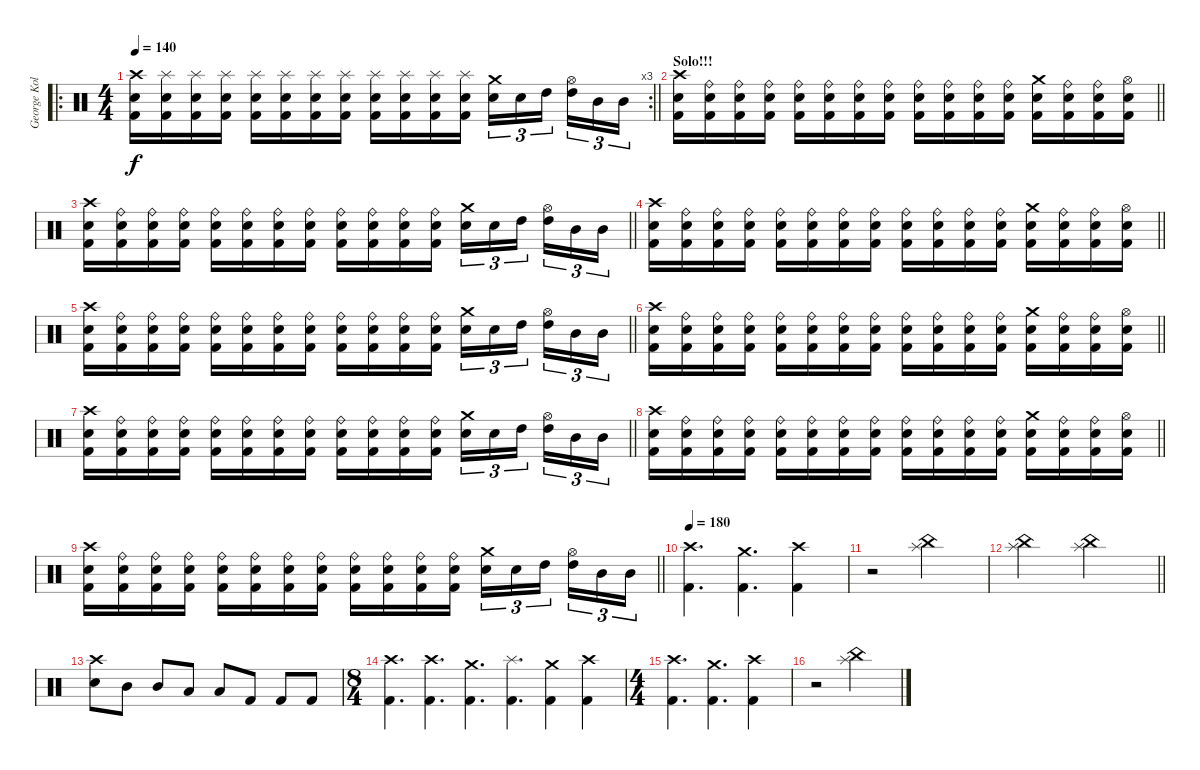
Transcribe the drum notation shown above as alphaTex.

\track ("George Kollias [Equill]" "George Kol") {instrument percussion}
\staff {score}
\articulation defaults
\ro
\rc 3
\ts (4 4)
\tempo 140
\clef neutral
\barLineRight lightlight
\ks c
("Crash high (hit)" "Electric Snare (hit)" "Kick (hit) 2").16{dy f} ("Splash (hit)" "Electric Snare (hit)" "Kick (hit) 2").16 ("Splash (hit)" "Electric Snare (hit)" "Kick (hit) 2").16 ("Splash (hit)" "Electric Snare (hit)" "Kick (hit) 2").16 ("Splash (hit)" "Electric Snare (hit)" "Kick (hit) 2").16 ("Splash (hit)" "Electric Snare (hit)" "Kick (hit) 2").16 ("Splash (hit)" "Electric Snare (hit)" "Kick (hit) 2").16 ("Splash (hit)" "Electric Snare (hit)" "Kick (hit) 2").16 ("Splash (hit)" "Electric Snare (hit)" "Kick (hit) 2").16 ("Splash (hit)" "Electric Snare (hit)" "Kick (hit) 2").16 ("Splash (hit)" "Electric Snare (hit)" "Kick (hit) 2").16 ("Splash (hit)" "Electric Snare (hit)" "Kick (hit) 2").16 ("Crash medium (hit)" "Electric Snare (hit)").16{tu (3 2)} "Electric Snare (hit)".16{tu (3 2)} "High Tom (hit)".16{tu (3 2) beam splitsecondary} ("Hi-Hat (open)" "High Tom (hit)").16{tu (3 2)} "Mid Tom (hit)".16{tu (3 2)} "Mid Tom (hit)".16{tu (3 2)} |
\section ("" "Solo!!!")
\barLineRight lightlight
("Crash high (hit)" "Electric Snare (hit)" "Kick (hit) 2").16 ("Ride (bell)" "Electric Snare (hit)" "Kick (hit) 2").16 ("Ride (bell)" "Electric Snare (hit)" "Kick (hit) 2").16 ("Ride (bell)" "Electric Snare (hit)" "Kick (hit) 2").16 ("Ride (bell)" "Electric Snare (hit)" "Kick (hit) 2").16 ("Ride (bell)" "Electric Snare (hit)" "Kick (hit) 2").16 ("Ride (bell)" "Electric Snare (hit)" "Kick (hit) 2").16 ("Ride (bell)" "Electric Snare (hit)" "Kick (hit) 2").16 ("Ride (bell)" "Electric Snare (hit)" "Kick (hit) 2").16 ("Ride (bell)" "Electric Snare (hit)" "Kick (hit) 2").16 ("Ride (bell)" "Electric Snare (hit)" "Kick (hit) 2").16 ("Ride (bell)" "Electric Snare (hit)" "Kick (hit) 2").16 ("Crash medium (hit)" "Electric Snare (hit)" "Kick (hit) 2").16 ("Ride (bell)" "Electric Snare (hit)" "Kick (hit) 2").16 ("Ride (bell)" "Electric Snare (hit)" "Kick (hit) 2").16 ("Hi-Hat (open)" "Electric Snare (hit)" "Kick (hit) 2").16 |
\barLineRight lightlight
("Crash high (hit)" "Electric Snare (hit)" "Kick (hit) 2").16 ("Ride (bell)" "Electric Snare (hit)" "Kick (hit) 2").16 ("Ride (bell)" "Electric Snare (hit)" "Kick (hit) 2").16 ("Ride (bell)" "Electric Snare (hit)" "Kick (hit) 2").16 ("Ride (bell)" "Electric Snare (hit)" "Kick (hit) 2").16 ("Ride (bell)" "Electric Snare (hit)" "Kick (hit) 2").16 ("Ride (bell)" "Electric Snare (hit)" "Kick (hit) 2").16 ("Ride (bell)" "Electric Snare (hit)" "Kick (hit) 2").16 ("Ride (bell)" "Electric Snare (hit)" "Kick (hit) 2").16 ("Ride (bell)" "Electric Snare (hit)" "Kick (hit) 2").16 ("Ride (bell)" "Electric Snare (hit)" "Kick (hit) 2").16 ("Ride (bell)" "Electric Snare (hit)" "Kick (hit) 2").16 ("Crash medium (hit)" "Electric Snare (hit)").16{tu (3 2)} "Electric Snare (hit)".16{tu (3 2)} "High Tom (hit)".16{tu (3 2) beam splitsecondary} ("Hi-Hat (open)" "High Tom (hit)").16{tu (3 2)} "Mid Tom (hit)".16{tu (3 2)} "Mid Tom (hit)".16{tu (3 2)} |
\barLineRight lightlight
("Crash high (hit)" "Electric Snare (hit)" "Kick (hit) 2").16 ("Ride (bell)" "Electric Snare (hit)" "Kick (hit) 2").16 ("Ride (bell)" "Electric Snare (hit)" "Kick (hit) 2").16 ("Ride (bell)" "Electric Snare (hit)" "Kick (hit) 2").16 ("Ride (bell)" "Electric Snare (hit)" "Kick (hit) 2").16 ("Ride (bell)" "Electric Snare (hit)" "Kick (hit) 2").16 ("Ride (bell)" "Electric Snare (hit)" "Kick (hit) 2").16 ("Ride (bell)" "Electric Snare (hit)" "Kick (hit) 2").16 ("Ride (bell)" "Electric Snare (hit)" "Kick (hit) 2").16 ("Ride (bell)" "Electric Snare (hit)" "Kick (hit) 2").16 ("Ride (bell)" "Electric Snare (hit)" "Kick (hit) 2").16 ("Ride (bell)" "Electric Snare (hit)" "Kick (hit) 2").16 ("Crash medium (hit)" "Electric Snare (hit)" "Kick (hit) 2").16 ("Ride (bell)" "Electric Snare (hit)" "Kick (hit) 2").16 ("Ride (bell)" "Electric Snare (hit)" "Kick (hit) 2").16 ("Hi-Hat (open)" "Electric Snare (hit)" "Kick (hit) 2").16 |
\barLineRight lightlight
("Crash high (hit)" "Electric Snare (hit)" "Kick (hit) 2").16 ("Ride (bell)" "Electric Snare (hit)" "Kick (hit) 2").16 ("Ride (bell)" "Electric Snare (hit)" "Kick (hit) 2").16 ("Ride (bell)" "Electric Snare (hit)" "Kick (hit) 2").16 ("Ride (bell)" "Electric Snare (hit)" "Kick (hit) 2").16 ("Ride (bell)" "Electric Snare (hit)" "Kick (hit) 2").16 ("Ride (bell)" "Electric Snare (hit)" "Kick (hit) 2").16 ("Ride (bell)" "Electric Snare (hit)" "Kick (hit) 2").16 ("Ride (bell)" "Electric Snare (hit)" "Kick (hit) 2").16 ("Ride (bell)" "Electric Snare (hit)" "Kick (hit) 2").16 ("Ride (bell)" "Electric Snare (hit)" "Kick (hit) 2").16 ("Ride (bell)" "Electric Snare (hit)" "Kick (hit) 2").16 ("Crash medium (hit)" "Electric Snare (hit)").16{tu (3 2)} "Electric Snare (hit)".16{tu (3 2)} "High Tom (hit)".16{tu (3 2) beam splitsecondary} ("Hi-Hat (open)" "High Tom (hit)").16{tu (3 2)} "Mid Tom (hit)".16{tu (3 2)} "Mid Tom (hit)".16{tu (3 2)} |
\barLineRight lightlight
("Crash high (hit)" "Electric Snare (hit)" "Kick (hit) 2").16 ("Ride (bell)" "Electric Snare (hit)" "Kick (hit) 2").16 ("Ride (bell)" "Electric Snare (hit)" "Kick (hit) 2").16 ("Ride (bell)" "Electric Snare (hit)" "Kick (hit) 2").16 ("Ride (bell)" "Electric Snare (hit)" "Kick (hit) 2").16 ("Ride (bell)" "Electric Snare (hit)" "Kick (hit) 2").16 ("Ride (bell)" "Electric Snare (hit)" "Kick (hit) 2").16 ("Ride (bell)" "Electric Snare (hit)" "Kick (hit) 2").16 ("Ride (bell)" "Electric Snare (hit)" "Kick (hit) 2").16 ("Ride (bell)" "Electric Snare (hit)" "Kick (hit) 2").16 ("Ride (bell)" "Electric Snare (hit)" "Kick (hit) 2").16 ("Ride (bell)" "Electric Snare (hit)" "Kick (hit) 2").16 ("Crash medium (hit)" "Electric Snare (hit)" "Kick (hit) 2").16 ("Ride (bell)" "Electric Snare (hit)" "Kick (hit) 2").16 ("Ride (bell)" "Electric Snare (hit)" "Kick (hit) 2").16 ("Hi-Hat (open)" "Electric Snare (hit)" "Kick (hit) 2").16 |
\barLineRight lightlight
("Crash high (hit)" "Electric Snare (hit)" "Kick (hit) 2").16 ("Ride (bell)" "Electric Snare (hit)" "Kick (hit) 2").16 ("Ride (bell)" "Electric Snare (hit)" "Kick (hit) 2").16 ("Ride (bell)" "Electric Snare (hit)" "Kick (hit) 2").16 ("Ride (bell)" "Electric Snare (hit)" "Kick (hit) 2").16 ("Ride (bell)" "Electric Snare (hit)" "Kick (hit) 2").16 ("Ride (bell)" "Electric Snare (hit)" "Kick (hit) 2").16 ("Ride (bell)" "Electric Snare (hit)" "Kick (hit) 2").16 ("Ride (bell)" "Electric Snare (hit)" "Kick (hit) 2").16 ("Ride (bell)" "Electric Snare (hit)" "Kick (hit) 2").16 ("Ride (bell)" "Electric Snare (hit)" "Kick (hit) 2").16 ("Ride (bell)" "Electric Snare (hit)" "Kick (hit) 2").16 ("Crash medium (hit)" "Electric Snare (hit)").16{tu (3 2)} "Electric Snare (hit)".16{tu (3 2)} "High Tom (hit)".16{tu (3 2) beam splitsecondary} ("Hi-Hat (open)" "High Tom (hit)").16{tu (3 2)} "Mid Tom (hit)".16{tu (3 2)} "Mid Tom (hit)".16{tu (3 2)} |
\barLineRight lightlight
("Crash high (hit)" "Electric Snare (hit)" "Kick (hit) 2").16 ("Ride (bell)" "Electric Snare (hit)" "Kick (hit) 2").16 ("Ride (bell)" "Electric Snare (hit)" "Kick (hit) 2").16 ("Ride (bell)" "Electric Snare (hit)" "Kick (hit) 2").16 ("Ride (bell)" "Electric Snare (hit)" "Kick (hit) 2").16 ("Ride (bell)" "Electric Snare (hit)" "Kick (hit) 2").16 ("Ride (bell)" "Electric Snare (hit)" "Kick (hit) 2").16 ("Ride (bell)" "Electric Snare (hit)" "Kick (hit) 2").16 ("Ride (bell)" "Electric Snare (hit)" "Kick (hit) 2").16 ("Ride (bell)" "Electric Snare (hit)" "Kick (hit) 2").16 ("Ride (bell)" "Electric Snare (hit)" "Kick (hit) 2").16 ("Ride (bell)" "Electric Snare (hit)" "Kick (hit) 2").16 ("Crash medium (hit)" "Electric Snare (hit)" "Kick (hit) 2").16 ("Ride (bell)" "Electric Snare (hit)" "Kick (hit) 2").16 ("Ride (bell)" "Electric Snare (hit)" "Kick (hit) 2").16 ("Hi-Hat (open)" "Electric Snare (hit)" "Kick (hit) 2").16 |
\barLineRight lightlight
("Crash high (hit)" "Electric Snare (hit)" "Kick (hit) 2").16 ("Ride (bell)" "Electric Snare (hit)" "Kick (hit) 2").16 ("Ride (bell)" "Electric Snare (hit)" "Kick (hit) 2").16 ("Ride (bell)" "Electric Snare (hit)" "Kick (hit) 2").16 ("Ride (bell)" "Electric Snare (hit)" "Kick (hit) 2").16 ("Ride (bell)" "Electric Snare (hit)" "Kick (hit) 2").16 ("Ride (bell)" "Electric Snare (hit)" "Kick (hit) 2").16 ("Ride (bell)" "Electric Snare (hit)" "Kick (hit) 2").16 ("Ride (bell)" "Electric Snare (hit)" "Kick (hit) 2").16 ("Ride (bell)" "Electric Snare (hit)" "Kick (hit) 2").16 ("Ride (bell)" "Electric Snare (hit)" "Kick (hit) 2").16 ("Ride (bell)" "Electric Snare (hit)" "Kick (hit) 2").16 ("Crash medium (hit)" "Electric Snare (hit)").16{tu (3 2)} "Electric Snare (hit)".16{tu (3 2)} "High Tom (hit)".16{tu (3 2) beam splitsecondary} ("Hi-Hat (open)" "High Tom (hit)").16{tu (3 2)} "Mid Tom (hit)".16{tu (3 2)} "Mid Tom (hit)".16{tu (3 2)} |
\tempo 180
("Crash high (hit)" "Kick (hit) 2").4{d} ("Crash medium (hit)" "Kick (hit) 2").4{d} ("Crash high (hit)" "Kick (hit) 2").4 |
r.2 ("China (hit)" "Splash (hit)").2 |
\barLineRight lightlight
("China (hit)" "Splash (hit)").2 ("China (hit)" "Splash (hit)").2 |
("Crash high (hit)" "Electric Snare (hit)").8 "Mid Tom (hit)".8 "Mid Tom (hit)".8 "Low Tom (hit)".8 "Low Tom (hit)".8 "Kick (hit) 2".8 "Kick (hit) 2".8 "Kick (hit) 2".8 |
\ts (8 4)
("Crash high (hit)" "Kick (hit) 2").4{d} ("Crash high (hit)" "Kick (hit) 2").4{d} ("Crash medium (hit)" "Kick (hit) 2").4{d} ("Splash (hit)" "Kick (hit) 2").4{d} ("Crash medium (hit)" "Kick (hit) 2").4 ("Crash high (hit)" "Kick (hit) 2").4 |
\ts (4 4)
("Crash high (hit)" "Kick (hit) 2").4{d} ("Crash medium (hit)" "Kick (hit) 2").4{d} ("Crash high (hit)" "Kick (hit) 2").4 |
r.2 ("China (hit)" "Splash (hit)").2
